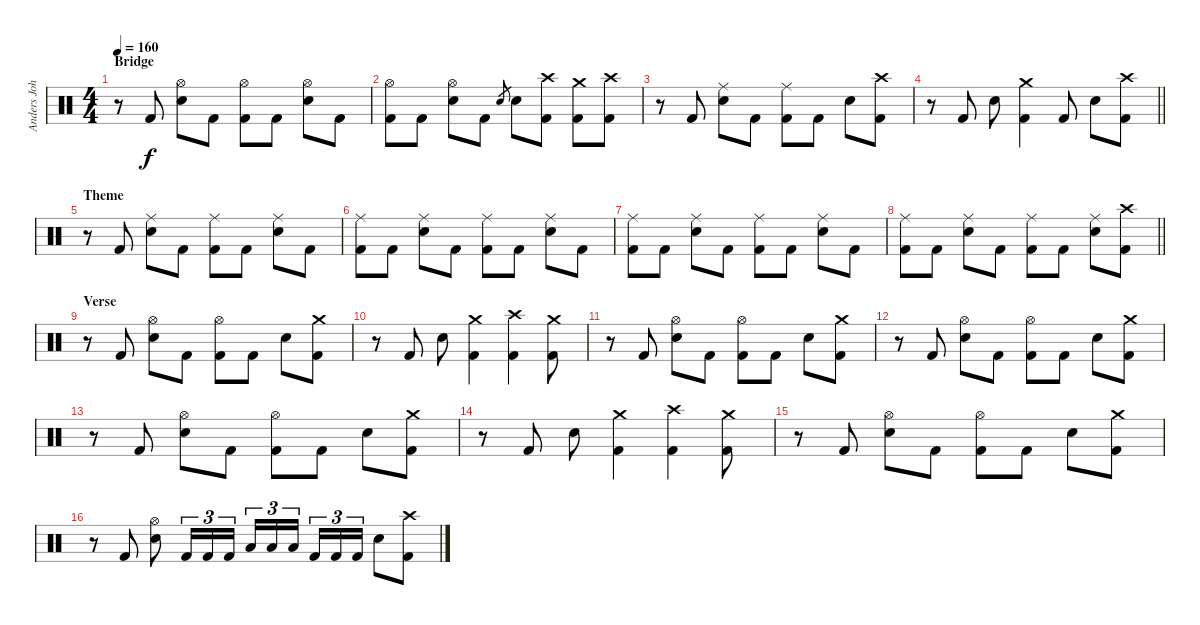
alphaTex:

\track ("Anders Johansson" "Anders Joh") {instrument percussion}
\staff {score}
\articulation defaults
\ts (4 4)
\section ("" "Bridge")
\tempo 160
\clef neutral
\ks c
r.8{dy f} "Kick (hit) 2".8 ("Hi-Hat (open)" "Snare (hit) 2").8 "Kick (hit) 2".8 ("Hi-Hat (open)" "Kick (hit) 2").8 "Kick (hit) 2".8 ("Hi-Hat (open)" "Snare (hit) 2").8 "Kick (hit) 2".8 |
("Hi-Hat (open)" "Kick (hit) 2").8 "Kick (hit) 2".8 ("Hi-Hat (open)" "Snare (hit) 2").8 "Kick (hit) 2".8 "Snare (hit) 2".8{gr} "Snare (hit) 2".8 ("Crash high (hit)" "Kick (hit) 2").8 ("Crash medium (hit)" "Kick (hit) 2").8 ("Crash high (hit)" "Kick (hit) 2").8 |
r.8 "Kick (hit) 2".8 ("Ride (middle)" "Snare (hit) 2").8 "Kick (hit) 2".8 ("Ride (middle)" "Kick (hit) 2").8 "Kick (hit) 2".8 "Snare (hit) 2".8 ("Crash high (hit)" "Kick (hit) 2").8 |
\barLineRight lightlight
r.8 "Kick (hit) 2".8 "Snare (hit) 2".8 ("Crash medium (hit)" "Kick (hit) 2").4 "Kick (hit) 2".8 "Snare (hit) 2".8 ("Crash high (hit)" "Kick (hit) 2").8 |
\section ("" "Theme")
r.8 "Kick (hit) 2".8 ("Ride (middle)" "Snare (hit) 2").8 "Kick (hit) 2".8 ("Ride (middle)" "Kick (hit) 2").8 "Kick (hit) 2".8 ("Ride (middle)" "Snare (hit) 2").8 "Kick (hit) 2".8 |
("Ride (middle)" "Kick (hit) 2").8 "Kick (hit) 2".8 ("Ride (middle)" "Snare (hit) 2").8 "Kick (hit) 2".8 ("Ride (middle)" "Kick (hit) 2").8 "Kick (hit) 2".8 ("Ride (middle)" "Snare (hit) 2").8 "Kick (hit) 2".8 |
("Ride (middle)" "Kick (hit) 2").8 "Kick (hit) 2".8 ("Ride (middle)" "Snare (hit) 2").8 "Kick (hit) 2".8 ("Ride (middle)" "Kick (hit) 2").8 "Kick (hit) 2".8 ("Ride (middle)" "Snare (hit) 2").8 "Kick (hit) 2".8 |
\barLineRight lightlight
("Ride (middle)" "Kick (hit) 2").8 "Kick (hit) 2".8 ("Ride (middle)" "Snare (hit) 2").8 "Kick (hit) 2".8 ("Ride (middle)" "Kick (hit) 2").8 "Kick (hit) 2".8 ("Ride (middle)" "Snare (hit) 2").8 ("Crash high (hit)" "Kick (hit) 2").8 |
\section ("" "Verse")
r.8 "Kick (hit) 2".8 ("Hi-Hat (open)" "Snare (hit) 2").8 "Kick (hit) 2".8 ("Hi-Hat (open)" "Kick (hit) 2").8 "Kick (hit) 2".8 "Snare (hit) 2".8 ("Crash medium (hit)" "Kick (hit) 2").8 |
r.8 "Kick (hit) 2".8 "Snare (hit) 2".8 ("Crash medium (hit)" "Kick (hit) 2").4 ("Crash high (hit)" "Kick (hit) 2").4 ("Crash medium (hit)" "Kick (hit) 2").8 |
r.8 "Kick (hit) 2".8 ("Hi-Hat (open)" "Snare (hit) 2").8 "Kick (hit) 2".8 ("Hi-Hat (open)" "Kick (hit) 2").8 "Kick (hit) 2".8 "Snare (hit) 2".8 ("Crash medium (hit)" "Kick (hit) 2").8 |
r.8 "Kick (hit) 2".8 ("Hi-Hat (open)" "Snare (hit) 2").8 "Kick (hit) 2".8 ("Hi-Hat (open)" "Kick (hit) 2").8 "Kick (hit) 2".8 "Snare (hit) 2".8 ("Crash medium (hit)" "Kick (hit) 2").8 |
r.8 "Kick (hit) 2".8 ("Hi-Hat (open)" "Snare (hit) 2").8 "Kick (hit) 2".8 ("Hi-Hat (open)" "Kick (hit) 2").8 "Kick (hit) 2".8 "Snare (hit) 2".8 ("Crash medium (hit)" "Kick (hit) 2").8 |
r.8 "Kick (hit) 2".8 "Snare (hit) 2".8 ("Crash medium (hit)" "Kick (hit) 2").4 ("Crash high (hit)" "Kick (hit) 2").4 ("Crash medium (hit)" "Kick (hit) 2").8 |
r.8 "Kick (hit) 2".8 ("Hi-Hat (open)" "Snare (hit) 2").8 "Kick (hit) 2".8 ("Hi-Hat (open)" "Kick (hit) 2").8 "Kick (hit) 2".8 "Snare (hit) 2".8 ("Crash medium (hit)" "Kick (hit) 2").8 |
r.8 "Kick (hit) 2".8 ("Hi-Hat (open)" "Snare (hit) 2").8 "Kick (hit) 2".16{tu (3 2)} "Kick (hit) 2".16{tu (3 2)} "Kick (hit) 2".16{tu (3 2)} "Low Tom (hit)".16{tu (3 2)} "Low Tom (hit)".16{tu (3 2)} "Low Tom (hit)".16{tu (3 2) beam splitsecondary} "Kick (hit) 2".16{tu (3 2)} "Kick (hit) 2".16{tu (3 2)} "Kick (hit) 2".16{tu (3 2)} "Snare (hit) 2".8 ("Crash high (hit)" "Kick (hit) 2").8
